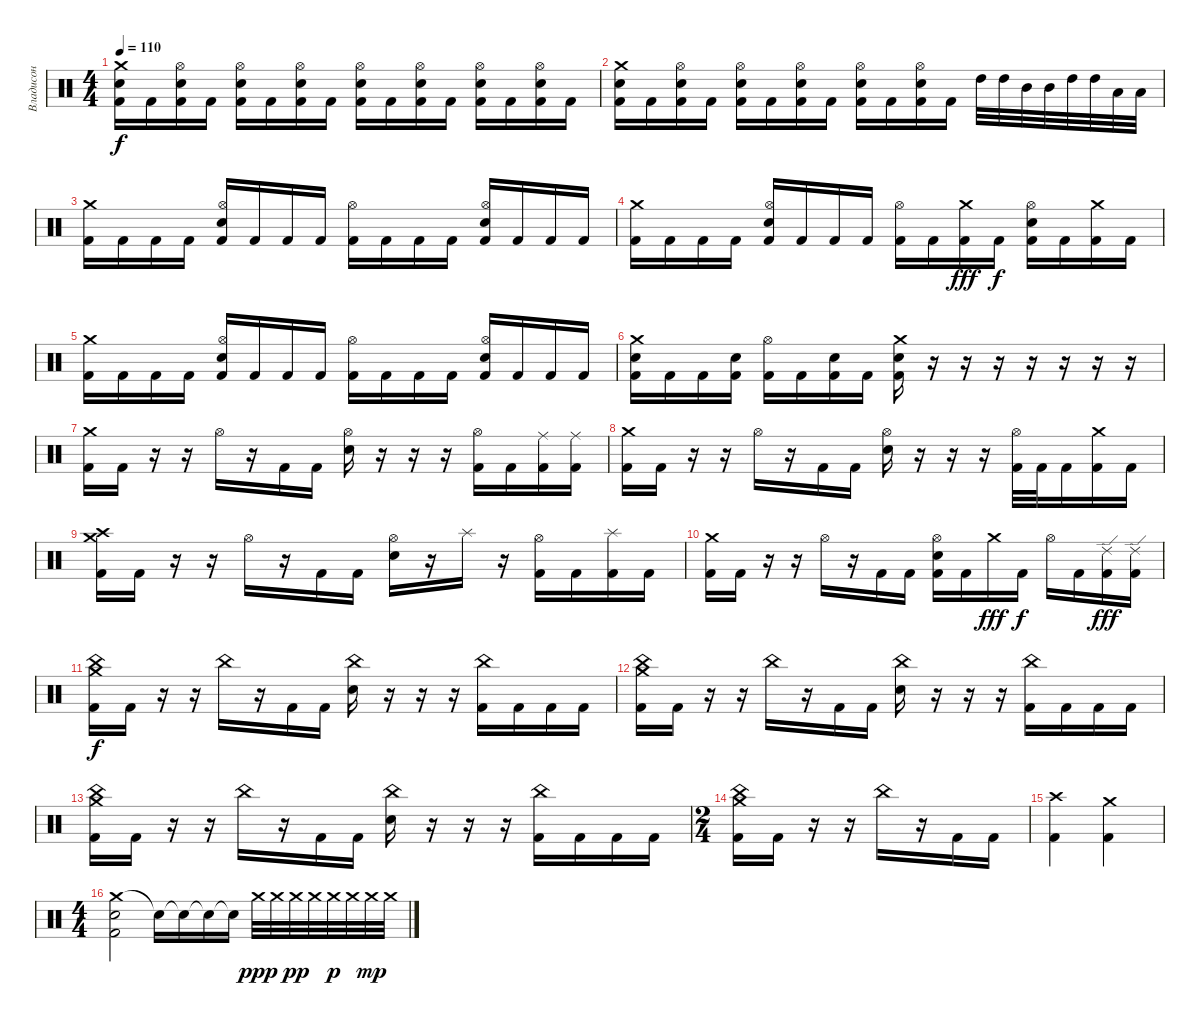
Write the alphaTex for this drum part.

\track ("Владисон" "Владисон") {instrument percussion}
\staff
\articulation defaults
\ts (4 4)
\tempo 110
\clef neutral
\ks c
("Crash medium (hit)" "Electric Snare (hit)" "Kick (hit) 2").16{dy f} "Kick (hit) 2".16 ("Hi-Hat (open)" "Electric Snare (hit)" "Kick (hit) 2").16 "Kick (hit) 2".16 ("Hi-Hat (open)" "Electric Snare (hit)" "Kick (hit) 2").16 "Kick (hit) 2".16 ("Hi-Hat (open)" "Electric Snare (hit)" "Kick (hit) 2").16 "Kick (hit) 2".16 ("Hi-Hat (open)" "Electric Snare (hit)" "Kick (hit) 2").16 "Kick (hit) 2".16 ("Hi-Hat (open)" "Electric Snare (hit)" "Kick (hit) 2").16 "Kick (hit) 2".16 ("Hi-Hat (open)" "Electric Snare (hit)" "Kick (hit) 2").16 "Kick (hit) 2".16 ("Hi-Hat (open)" "Electric Snare (hit)" "Kick (hit) 2").16 "Kick (hit) 2".16 |
("Crash medium (hit)" "Electric Snare (hit)" "Kick (hit) 2").16 "Kick (hit) 2".16 ("Hi-Hat (open)" "Electric Snare (hit)" "Kick (hit) 2").16 "Kick (hit) 2".16 ("Hi-Hat (open)" "Electric Snare (hit)" "Kick (hit) 2").16 "Kick (hit) 2".16 ("Hi-Hat (open)" "Electric Snare (hit)" "Kick (hit) 2").16 "Kick (hit) 2".16 ("Hi-Hat (open)" "Electric Snare (hit)" "Kick (hit) 2").16 "Kick (hit) 2".16 ("Hi-Hat (open)" "Electric Snare (hit)" "Kick (hit) 2").16 "Kick (hit) 2".16 "High Tom (hit)".32 "High Tom (hit)".32 "Mid Tom (hit)".32 "Mid Tom (hit)".32 "High Tom (hit)".32 "High Tom (hit)".32 "Low Tom (hit)".32 "Low Tom (hit)".32 |
("Crash medium (hit)" "Kick (hit) 2").16 "Kick (hit) 2".16 "Kick (hit) 2".16 "Kick (hit) 2".16 ("Hi-Hat (open)" "Snare (hit) 2" "Kick (hit) 2").16 "Kick (hit) 2".16 "Kick (hit) 2".16 "Kick (hit) 2".16 ("Hi-Hat (open)" "Kick (hit) 2").16 "Kick (hit) 2".16 "Kick (hit) 2".16 "Kick (hit) 2".16 ("Hi-Hat (open)" "Snare (hit) 2" "Kick (hit) 2").16 "Kick (hit) 2".16 "Kick (hit) 2".16 "Kick (hit) 2".16 |
("Crash medium (hit)" "Kick (hit) 2").16 "Kick (hit) 2".16 "Kick (hit) 2".16 "Kick (hit) 2".16 ("Hi-Hat (open)" "Snare (hit) 2" "Kick (hit) 2").16 "Kick (hit) 2".16 "Kick (hit) 2".16 "Kick (hit) 2".16 ("Hi-Hat (open)" "Kick (hit) 2").16 "Kick (hit) 2".16 ("Crash medium (hit)" "Kick (hit) 2").16{dy fff} "Kick (hit) 2".16{dy f} ("Hi-Hat (open)" "Snare (hit) 2" "Kick (hit) 2").16 "Kick (hit) 2".16 ("Crash medium (hit)" "Kick (hit) 2").16 "Kick (hit) 2".16 |
("Crash medium (hit)" "Kick (hit) 2").16 "Kick (hit) 2".16 "Kick (hit) 2".16 "Kick (hit) 2".16 ("Hi-Hat (open)" "Snare (hit) 2" "Kick (hit) 2").16 "Kick (hit) 2".16 "Kick (hit) 2".16 "Kick (hit) 2".16 ("Hi-Hat (open)" "Kick (hit) 2").16 "Kick (hit) 2".16 "Kick (hit) 2".16 "Kick (hit) 2".16 ("Hi-Hat (open)" "Snare (hit) 2" "Kick (hit) 2").16 "Kick (hit) 2".16 "Kick (hit) 2".16 "Kick (hit) 2".16 |
("Crash medium (hit)" "Snare (hit) 2" "Kick (hit) 2").16 "Kick (hit) 2".16 "Kick (hit) 2".16 ("Snare (hit) 2" "Kick (hit) 2").16 ("Hi-Hat (open)" "Kick (hit) 2").16 "Kick (hit) 2".16 ("Snare (hit) 2" "Kick (hit) 2").16 "Kick (hit) 2".16 ("Crash medium (hit)" "Kick (hit) 2" "Snare (hit) 2").16 r.16 r.16 r.16 r.16 r.16 r.16 r.16 |
("Crash medium (hit)" "Kick (hit) 2").16 "Kick (hit) 2".16 r.16 r.16 "Hi-Hat (open)".16 r.16 "Kick (hit) 2".16 "Kick (hit) 2".16 ("Hi-Hat (open)" "Snare (hit) 2").16 r.16 r.16 r.16 ("Hi-Hat (open)" "Kick (hit) 2").16 "Kick (hit) 2".16 ("Ride (middle)" "Kick (hit) 2").16 ("Ride (middle)" "Kick (hit) 2").16 |
("Crash medium (hit)" "Kick (hit) 2").16 "Kick (hit) 2".16 r.16 r.16 "Hi-Hat (open)".16 r.16 "Kick (hit) 2".16 "Kick (hit) 2".16 ("Hi-Hat (open)" "Snare (hit) 2").16 r.16 r.16 r.16 ("Hi-Hat (open)" "Kick (hit) 2").32 "Kick (hit) 2".32 "Kick (hit) 2".16 ("Crash medium (hit)" "Kick (hit) 2").16 "Kick (hit) 2".16 |
("Crash medium (hit)" "Crash high (hit)" "Kick (hit) 2").16 "Kick (hit) 2".16 r.16 r.16 "Hi-Hat (open)".16 r.16 "Kick (hit) 2".16 "Kick (hit) 2".16 ("Hi-Hat (open)" "Snare (hit) 2").16 r.16 "Splash (hit)".16 r.16 ("Hi-Hat (open)" "Kick (hit) 2").16 "Kick (hit) 2".16 ("Splash (hit)" "Kick (hit) 2").16 "Kick (hit) 2".16 |
("Crash medium (hit)" "Kick (hit) 2").16 "Kick (hit) 2".16 r.16 r.16 "Hi-Hat (open)".16 r.16 "Kick (hit) 2".16 "Kick (hit) 2".16 ("Hi-Hat (open)" "Snare (hit) 2" "Kick (hit) 2").16 "Kick (hit) 2".16 "Crash medium (hit)".16{dy fff} "Kick (hit) 2".16{dy f} "Hi-Hat (open)".16 "Kick (hit) 2".16 ("Ride (edge) 2" "Kick (hit) 2").16{dy fff} ("Ride (edge) 2" "Kick (hit) 2").16 |
("Crash medium (hit)" "China (hit)" "Kick (hit) 2").16{dy f} "Kick (hit) 2".16 r.16 r.16 "China (hit)".16 r.16 "Kick (hit) 2".16 "Kick (hit) 2".16 ("China (hit)" "Snare (hit) 2").16 r.16 r.16 r.16 ("China (hit)" "Kick (hit) 2").16 "Kick (hit) 2".16 "Kick (hit) 2".16 "Kick (hit) 2".16 |
("Crash medium (hit)" "China (hit)" "Kick (hit) 2").16 "Kick (hit) 2".16 r.16 r.16 "China (hit)".16 r.16 "Kick (hit) 2".16 "Kick (hit) 2".16 ("China (hit)" "Snare (hit) 2").16 r.16 r.16 r.16 ("China (hit)" "Kick (hit) 2").16 "Kick (hit) 2".16 "Kick (hit) 2".16 "Kick (hit) 2".16 |
("Crash medium (hit)" "China (hit)" "Kick (hit) 2").16 "Kick (hit) 2".16 r.16 r.16 "China (hit)".16 r.16 "Kick (hit) 2".16 "Kick (hit) 2".16 ("China (hit)" "Snare (hit) 2").16 r.16 r.16 r.16 ("China (hit)" "Kick (hit) 2").16 "Kick (hit) 2".16 "Kick (hit) 2".16 "Kick (hit) 2".16 |
\ts (2 4)
("Crash medium (hit)" "China (hit)" "Kick (hit) 2").16 "Kick (hit) 2".16 r.16 r.16 "China (hit)".16 r.16 "Kick (hit) 2".16 "Kick (hit) 2".16 |
("Crash high (hit)" "Kick (hit) 2").4 ("Crash medium (hit)" "Kick (hit) 2").4 |
\ts (4 4)
("Crash medium (hit)" "Snare (hit) 2" "Kick (hit) 2").2 "Snare (hit)"{t}.16 "Snare (hit)"{t}.16 "Snare (hit)"{t}.16 "Snare (hit)"{t}.16 "Crash medium (hit)".32{dy ppp} "Crash medium (hit)".32 "Crash medium (hit)".32{dy pp} "Crash medium (hit)".32 "Crash medium (hit)".32{dy p} "Crash medium (hit)".32 "Crash medium (hit)".32{dy mp} "Crash medium (hit)".32
